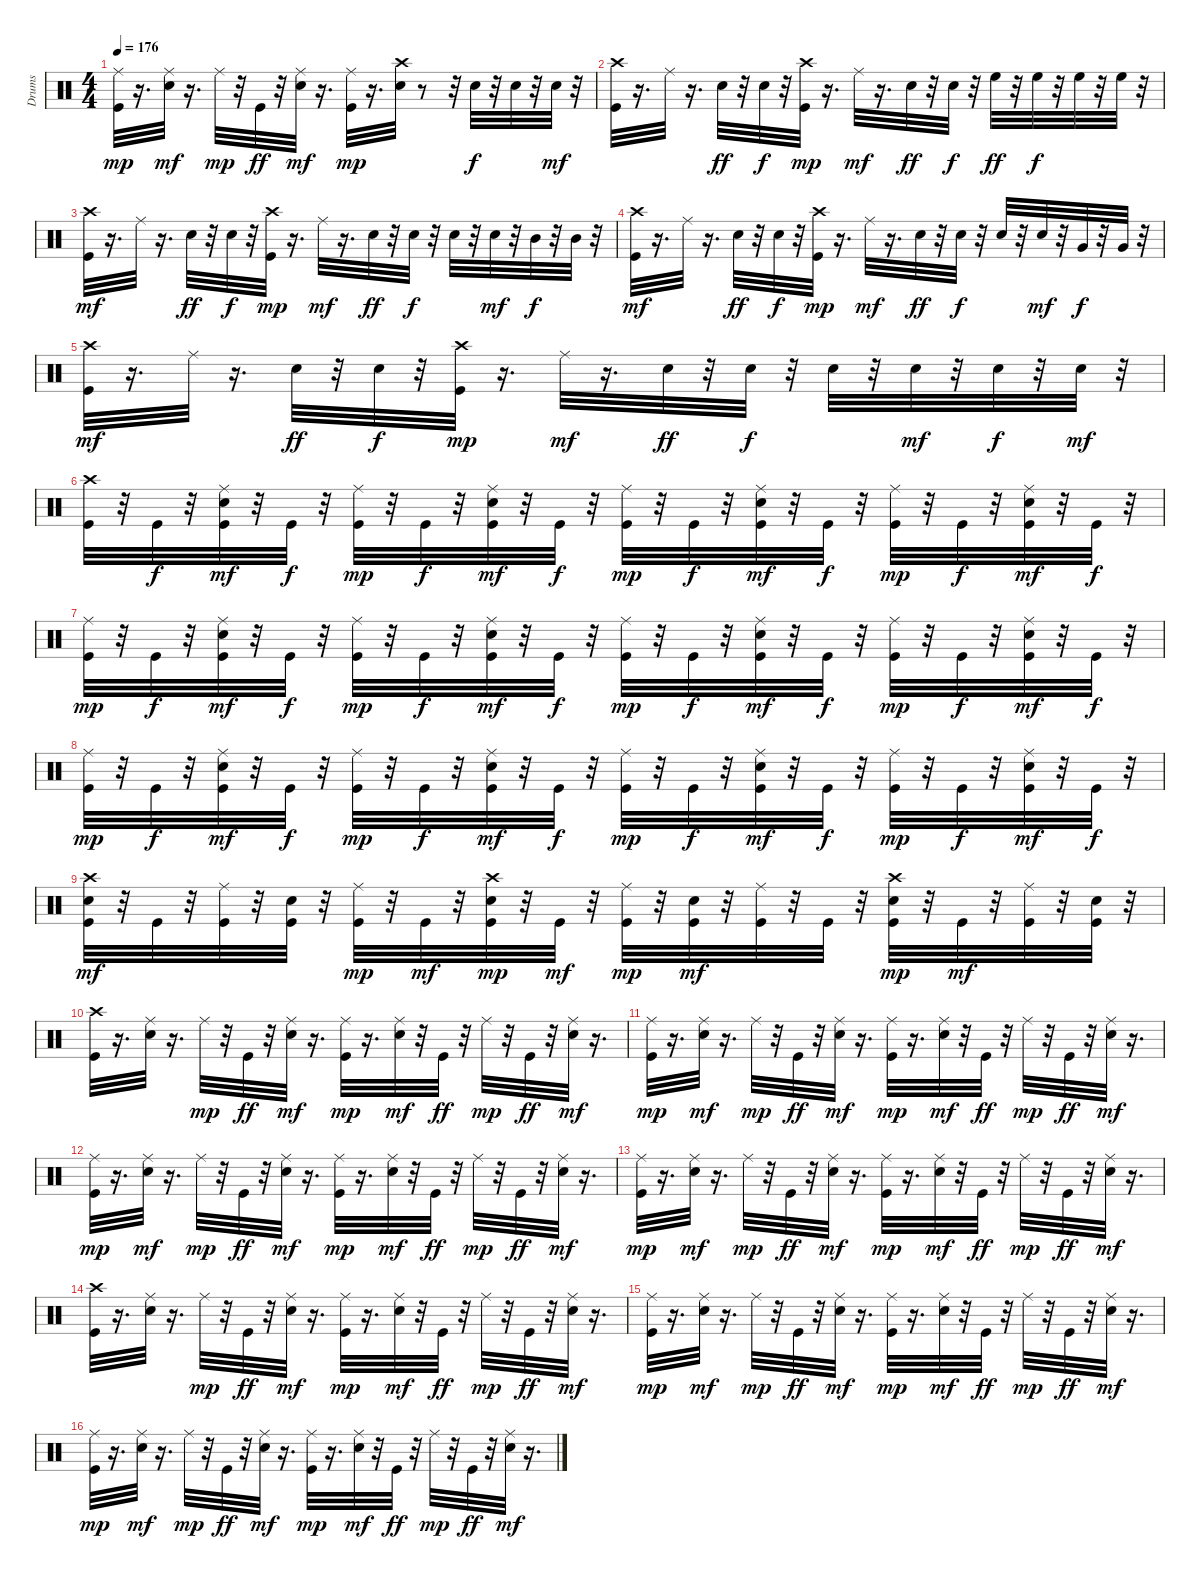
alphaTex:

\track ("Drums" "Drums") {instrument percussion}
\staff {score}
\articulation defaults
\ts (4 4)
\tempo 176
\clef neutral
\ks c
("Kick (hit)" "Ride (middle)").32{dy mp} r.16{d} ("Snare (hit) 2" "Ride (middle)").32{dy mf} r.16{d} "Ride (middle)".32{dy mp} r.32 "Kick (hit)".32{dy ff} r.32 ("Snare (hit) 2" "Ride (middle)").32{dy mf} r.16{d} ("Kick (hit)" "Ride (middle)").32{dy mp} r.16{d} ("Snare (hit) 2" "Crash high (hit)").32 r.8 r.32 "Snare (hit) 2".32{dy f} r.32 "Snare (hit) 2".32 r.32 "Snare (hit) 2".32{dy mf} r.32 |
("Kick (hit)" "Crash high (hit)").32 r.16{d} "Ride (middle)".32 r.16{d} "Snare (hit) 2".32{dy ff} r.32 "Snare (hit) 2".32{dy f} r.32 ("Kick (hit)" "Crash high (hit)").32{dy mp} r.16{d} "Ride (middle)".32{dy mf} r.16{d} "Snare (hit) 2".32{dy ff} r.32 "Snare (hit) 2".32{dy f} r.32 "High Floor Tom (hit)".32{dy ff} r.32 "High Floor Tom (hit)".32{dy f} r.32 "High Floor Tom (hit)".32 r.32 "High Floor Tom (hit)".32 r.32 |
("Kick (hit)" "Crash high (hit)").32{dy mf} r.16{d} "Ride (middle)".32 r.16{d} "Snare (hit) 2".32{dy ff} r.32 "Snare (hit) 2".32{dy f} r.32 ("Kick (hit)" "Crash high (hit)").32{dy mp} r.16{d} "Ride (middle)".32{dy mf} r.16{d} "Snare (hit) 2".32{dy ff} r.32 "Snare (hit) 2".32{dy f} r.32 "Snare (hit) 2".32 r.32 "Snare (hit) 2".32{dy mf} r.32 "Mid Tom (hit)".32{dy f} r.32 "Mid Tom (hit)".32 r.32 |
("Kick (hit)" "Crash high (hit)").32{dy mf} r.16{d} "Ride (middle)".32 r.16{d} "Snare (hit) 2".32{dy ff} r.32 "Snare (hit) 2".32{dy f} r.32 ("Kick (hit)" "Crash high (hit)").32{dy mp} r.16{d} "Ride (middle)".32{dy mf} r.16{d} "Snare (hit) 2".32{dy ff} r.32 "Snare (hit) 2".32{dy f} r.32 "Snare (hit) 2".32 r.32 "Snare (hit) 2".32{dy mf} r.32 "Very Low Tom (hit)".32{dy f} r.32 "Very Low Tom (hit)".32 r.32 |
("Kick (hit)" "Crash high (hit)").32{dy mf} r.16{d} "Ride (middle)".32 r.16{d} "Snare (hit) 2".32{dy ff} r.32 "Snare (hit) 2".32{dy f} r.32 ("Kick (hit)" "Crash high (hit)").32{dy mp} r.16{d} "Ride (middle)".32{dy mf} r.16{d} "Snare (hit) 2".32{dy ff} r.32 "Snare (hit) 2".32{dy f} r.32 "Snare (hit) 2".32 r.32 "Snare (hit) 2".32{dy mf} r.32 "Snare (hit) 2".32{dy f} r.32 "Snare (hit) 2".32{dy mf} r.32 |
("Kick (hit)" "Crash high (hit)").32 r.32 "Kick (hit)".32{dy f} r.32 ("Kick (hit)" "Snare (hit) 2" "Ride (middle)").32{dy mf} r.32 "Kick (hit)".32{dy f} r.32 ("Kick (hit)" "Ride (middle)").32{dy mp} r.32 "Kick (hit)".32{dy f} r.32 ("Kick (hit)" "Snare (hit) 2" "Ride (middle)").32{dy mf} r.32 "Kick (hit)".32{dy f} r.32 ("Kick (hit)" "Ride (middle)").32{dy mp} r.32 "Kick (hit)".32{dy f} r.32 ("Kick (hit)" "Snare (hit) 2" "Ride (middle)").32{dy mf} r.32 "Kick (hit)".32{dy f} r.32 ("Kick (hit)" "Ride (middle)").32{dy mp} r.32 "Kick (hit)".32{dy f} r.32 ("Kick (hit)" "Snare (hit) 2" "Ride (middle)").32{dy mf} r.32 "Kick (hit)".32{dy f} r.32 |
("Kick (hit)" "Ride (middle)").32{dy mp} r.32 "Kick (hit)".32{dy f} r.32 ("Kick (hit)" "Snare (hit) 2" "Ride (middle)").32{dy mf} r.32 "Kick (hit)".32{dy f} r.32 ("Kick (hit)" "Ride (middle)").32{dy mp} r.32 "Kick (hit)".32{dy f} r.32 ("Kick (hit)" "Snare (hit) 2" "Ride (middle)").32{dy mf} r.32 "Kick (hit)".32{dy f} r.32 ("Kick (hit)" "Ride (middle)").32{dy mp} r.32 "Kick (hit)".32{dy f} r.32 ("Kick (hit)" "Snare (hit) 2" "Ride (middle)").32{dy mf} r.32 "Kick (hit)".32{dy f} r.32 ("Kick (hit)" "Ride (middle)").32{dy mp} r.32 "Kick (hit)".32{dy f} r.32 ("Kick (hit)" "Snare (hit) 2" "Ride (middle)").32{dy mf} r.32 "Kick (hit)".32{dy f} r.32 |
("Kick (hit)" "Ride (middle)").32{dy mp} r.32 "Kick (hit)".32{dy f} r.32 ("Kick (hit)" "Snare (hit) 2" "Ride (middle)").32{dy mf} r.32 "Kick (hit)".32{dy f} r.32 ("Kick (hit)" "Ride (middle)").32{dy mp} r.32 "Kick (hit)".32{dy f} r.32 ("Kick (hit)" "Snare (hit) 2" "Ride (middle)").32{dy mf} r.32 "Kick (hit)".32{dy f} r.32 ("Kick (hit)" "Ride (middle)").32{dy mp} r.32 "Kick (hit)".32{dy f} r.32 ("Kick (hit)" "Snare (hit) 2" "Ride (middle)").32{dy mf} r.32 "Kick (hit)".32{dy f} r.32 ("Kick (hit)" "Ride (middle)").32{dy mp} r.32 "Kick (hit)".32{dy f} r.32 ("Kick (hit)" "Snare (hit) 2" "Ride (middle)").32{dy mf} r.32 "Kick (hit)".32{dy f} r.32 |
("Kick (hit)" "Snare (hit) 2" "Crash high (hit)").32{dy mf} r.32 "Kick (hit)".32 r.32 ("Kick (hit)" "Ride (middle)").32 r.32 ("Kick (hit)" "Snare (hit) 2").32 r.32 ("Kick (hit)" "Ride (middle)").32{dy mp} r.32 "Kick (hit)".32{dy mf} r.32 ("Kick (hit)" "Snare (hit) 2" "Crash high (hit)").32{dy mp} r.32 "Kick (hit)".32{dy mf} r.32 ("Kick (hit)" "Ride (middle)").32{dy mp} r.32 ("Kick (hit)" "Snare (hit) 2").32{dy mf} r.32 ("Kick (hit)" "Ride (middle)").32 r.32 "Kick (hit)".32 r.32 ("Kick (hit)" "Snare (hit) 2" "Crash high (hit)").32{dy mp} r.32 "Kick (hit)".32{dy mf} r.32 ("Kick (hit)" "Ride (middle)").32 r.32 ("Kick (hit)" "Snare (hit) 2").32 r.32 |
("Kick (hit)" "Crash high (hit)").32 r.16{d} ("Snare (hit) 2" "Ride (middle)").32 r.16{d} "Ride (middle)".32{dy mp} r.32 "Kick (hit)".32{dy ff} r.32 ("Snare (hit) 2" "Ride (middle)").32{dy mf} r.16{d} ("Kick (hit)" "Ride (middle)").32{dy mp} r.16{d} ("Snare (hit) 2" "Ride (middle)").32{dy mf} r.32 "Kick (hit)".32{dy ff} r.32 "Ride (middle)".32{dy mp} r.32 "Kick (hit)".32{dy ff} r.32 ("Snare (hit) 2" "Ride (middle)").32{dy mf} r.16{d} |
("Kick (hit)" "Ride (middle)").32{dy mp} r.16{d} ("Snare (hit) 2" "Ride (middle)").32{dy mf} r.16{d} "Ride (middle)".32{dy mp} r.32 "Kick (hit)".32{dy ff} r.32 ("Snare (hit) 2" "Ride (middle)").32{dy mf} r.16{d} ("Kick (hit)" "Ride (middle)").32{dy mp} r.16{d} ("Snare (hit) 2" "Ride (middle)").32{dy mf} r.32 "Kick (hit)".32{dy ff} r.32 "Ride (middle)".32{dy mp} r.32 "Kick (hit)".32{dy ff} r.32 ("Snare (hit) 2" "Ride (middle)").32{dy mf} r.16{d} |
("Kick (hit)" "Ride (middle)").32{dy mp} r.16{d} ("Snare (hit) 2" "Ride (middle)").32{dy mf} r.16{d} "Ride (middle)".32{dy mp} r.32 "Kick (hit)".32{dy ff} r.32 ("Snare (hit) 2" "Ride (middle)").32{dy mf} r.16{d} ("Kick (hit)" "Ride (middle)").32{dy mp} r.16{d} ("Snare (hit) 2" "Ride (middle)").32{dy mf} r.32 "Kick (hit)".32{dy ff} r.32 "Ride (middle)".32{dy mp} r.32 "Kick (hit)".32{dy ff} r.32 ("Snare (hit) 2" "Ride (middle)").32{dy mf} r.16{d} |
("Kick (hit)" "Ride (middle)").32{dy mp} r.16{d} ("Snare (hit) 2" "Ride (middle)").32{dy mf} r.16{d} "Ride (middle)".32{dy mp} r.32 "Kick (hit)".32{dy ff} r.32 ("Snare (hit) 2" "Ride (middle)").32{dy mf} r.16{d} ("Kick (hit)" "Ride (middle)").32{dy mp} r.16{d} ("Snare (hit) 2" "Ride (middle)").32{dy mf} r.32 "Kick (hit)".32{dy ff} r.32 "Ride (middle)".32{dy mp} r.32 "Kick (hit)".32{dy ff} r.32 ("Snare (hit) 2" "Ride (middle)").32{dy mf} r.16{d} |
("Kick (hit)" "Crash high (hit)").32 r.16{d} ("Snare (hit) 2" "Ride (middle)").32 r.16{d} "Ride (middle)".32{dy mp} r.32 "Kick (hit)".32{dy ff} r.32 ("Snare (hit) 2" "Ride (middle)").32{dy mf} r.16{d} ("Kick (hit)" "Ride (middle)").32{dy mp} r.16{d} ("Snare (hit) 2" "Ride (middle)").32{dy mf} r.32 "Kick (hit)".32{dy ff} r.32 "Ride (middle)".32{dy mp} r.32 "Kick (hit)".32{dy ff} r.32 ("Snare (hit) 2" "Ride (middle)").32{dy mf} r.16{d} |
("Kick (hit)" "Ride (middle)").32{dy mp} r.16{d} ("Snare (hit) 2" "Ride (middle)").32{dy mf} r.16{d} "Ride (middle)".32{dy mp} r.32 "Kick (hit)".32{dy ff} r.32 ("Snare (hit) 2" "Ride (middle)").32{dy mf} r.16{d} ("Kick (hit)" "Ride (middle)").32{dy mp} r.16{d} ("Snare (hit) 2" "Ride (middle)").32{dy mf} r.32 "Kick (hit)".32{dy ff} r.32 "Ride (middle)".32{dy mp} r.32 "Kick (hit)".32{dy ff} r.32 ("Snare (hit) 2" "Ride (middle)").32{dy mf} r.16{d} |
("Kick (hit)" "Ride (middle)").32{dy mp} r.16{d} ("Snare (hit) 2" "Ride (middle)").32{dy mf} r.16{d} "Ride (middle)".32{dy mp} r.32 "Kick (hit)".32{dy ff} r.32 ("Snare (hit) 2" "Ride (middle)").32{dy mf} r.16{d} ("Kick (hit)" "Ride (middle)").32{dy mp} r.16{d} ("Snare (hit) 2" "Ride (middle)").32{dy mf} r.32 "Kick (hit)".32{dy ff} r.32 "Ride (middle)".32{dy mp} r.32 "Kick (hit)".32{dy ff} r.32 ("Snare (hit) 2" "Ride (middle)").32{dy mf} r.16{d}
